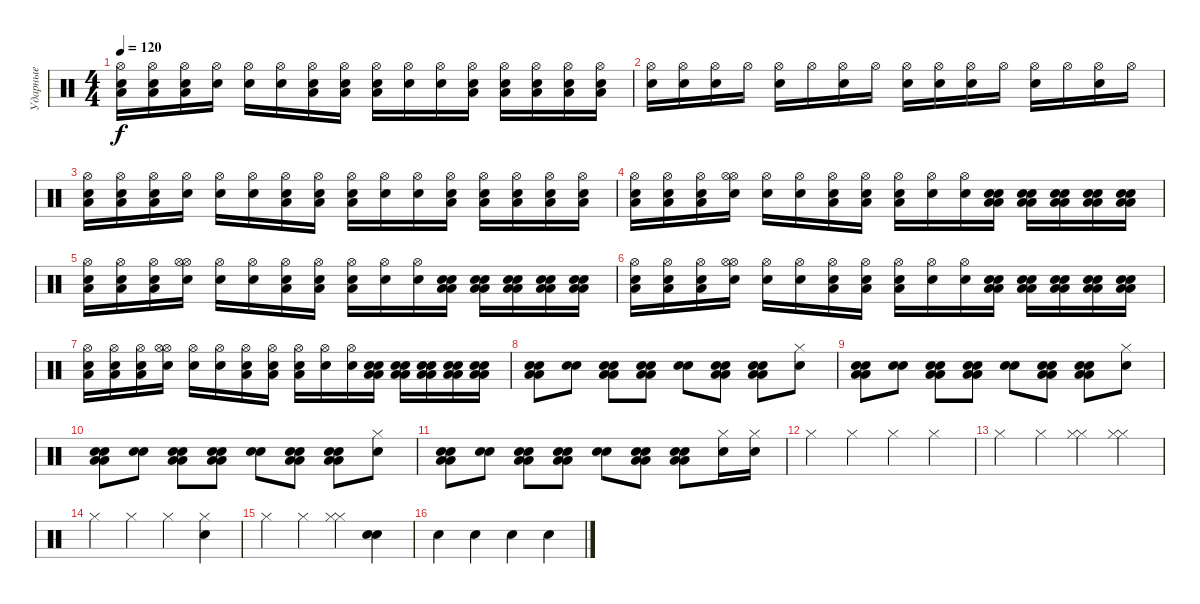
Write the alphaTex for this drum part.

\track ("Ударные" "Ударные") {instrument percussion}
\staff {score}
\articulation defaults
\ts (4 4)
\tempo 120
\clef neutral
\ks c
("Low Floor Tom (hit)" "Electric Snare (hit)" "Hi-Hat (open)").16{dy f} ("Low Floor Tom (hit)" "Electric Snare (hit)" "Hi-Hat (open)").16 ("Low Floor Tom (hit)" "Electric Snare (hit)" "Hi-Hat (open)").16 ("Electric Snare (hit)" "Hi-Hat (open)").16 ("Electric Snare (hit)" "Hi-Hat (open)").16 ("Electric Snare (hit)" "Hi-Hat (open)").16 ("Low Floor Tom (hit)" "Electric Snare (hit)" "Hi-Hat (open)").16 ("Low Floor Tom (hit)" "Electric Snare (hit)" "Hi-Hat (open)").16 ("Low Floor Tom (hit)" "Electric Snare (hit)" "Hi-Hat (open)").16 ("Electric Snare (hit)" "Hi-Hat (open)").16 ("Electric Snare (hit)" "Hi-Hat (open)").16 ("Low Floor Tom (hit)" "Electric Snare (hit)" "Hi-Hat (open)").16 ("Low Floor Tom (hit)" "Electric Snare (hit)" "Hi-Hat (open)").16 ("Low Floor Tom (hit)" "Electric Snare (hit)" "Hi-Hat (open)").16 ("Low Floor Tom (hit)" "Electric Snare (hit)" "Hi-Hat (open)").16 ("Low Floor Tom (hit)" "Electric Snare (hit)" "Hi-Hat (open)").16 |
("Electric Snare (hit)" "Hi-Hat (open)").16 ("Electric Snare (hit)" "Hi-Hat (open)").16 ("Electric Snare (hit)" "Hi-Hat (open)").16 "Hi-Hat (open)".16 ("Electric Snare (hit)" "Hi-Hat (open)").16 "Hi-Hat (open)".16 ("Electric Snare (hit)" "Hi-Hat (open)").16 "Hi-Hat (open)".16 ("Electric Snare (hit)" "Hi-Hat (open)").16 ("Electric Snare (hit)" "Hi-Hat (open)").16 ("Electric Snare (hit)" "Hi-Hat (open)").16 "Hi-Hat (open)".16 ("Electric Snare (hit)" "Hi-Hat (open)").16 "Hi-Hat (open)".16 ("Electric Snare (hit)" "Hi-Hat (open)").16 "Hi-Hat (open)".16 |
("Low Floor Tom (hit)" "Electric Snare (hit)" "Hi-Hat (open)").16 ("Low Floor Tom (hit)" "Electric Snare (hit)" "Hi-Hat (open)").16 ("Low Floor Tom (hit)" "Electric Snare (hit)" "Hi-Hat (open)").16 ("Electric Snare (hit)" "Hi-Hat (open)").16 ("Electric Snare (hit)" "Hi-Hat (open)").16 ("Electric Snare (hit)" "Hi-Hat (open)").16 ("Low Floor Tom (hit)" "Electric Snare (hit)" "Hi-Hat (open)").16 ("Low Floor Tom (hit)" "Electric Snare (hit)" "Hi-Hat (open)").16 ("Low Floor Tom (hit)" "Electric Snare (hit)" "Hi-Hat (open)").16 ("Electric Snare (hit)" "Hi-Hat (open)").16 ("Electric Snare (hit)" "Hi-Hat (open)").16 ("Low Floor Tom (hit)" "Electric Snare (hit)" "Hi-Hat (open)").16 ("Low Floor Tom (hit)" "Electric Snare (hit)" "Hi-Hat (open)").16 ("Low Floor Tom (hit)" "Electric Snare (hit)" "Hi-Hat (open)").16 ("Low Floor Tom (hit)" "Electric Snare (hit)" "Hi-Hat (open)").16 ("Low Floor Tom (hit)" "Electric Snare (hit)" "Hi-Hat (open)").16 |
("Low Floor Tom (hit)" "Electric Snare (hit)" "Hi-Hat (open)").16 ("Low Floor Tom (hit)" "Electric Snare (hit)" "Hi-Hat (open)").16 ("Low Floor Tom (hit)" "Electric Snare (hit)" "Hi-Hat (open)").16 ("Hi-Hat (open)" "Electric Snare (hit)" "Hi-Hat (open)").16 ("Electric Snare (hit)" "Hi-Hat (open)").16 ("Electric Snare (hit)" "Hi-Hat (open)").16 ("Low Floor Tom (hit)" "Electric Snare (hit)" "Hi-Hat (open)").16 ("Low Floor Tom (hit)" "Electric Snare (hit)" "Hi-Hat (open)").16 ("Low Floor Tom (hit)" "Electric Snare (hit)" "Hi-Hat (open)").16 ("Electric Snare (hit)" "Hi-Hat (open)").16 ("Electric Snare (hit)" "Hi-Hat (open)").16 ("Low Floor Tom (hit)" "Low Floor Tom (hit)" "Electric Snare (hit)" "Electric Snare (hit)").16 ("Low Floor Tom (hit)" "Low Floor Tom (hit)" "Electric Snare (hit)" "Electric Snare (hit)").16 ("Low Floor Tom (hit)" "Low Floor Tom (hit)" "Electric Snare (hit)" "Electric Snare (hit)").16 ("Low Floor Tom (hit)" "Low Floor Tom (hit)" "Electric Snare (hit)" "Electric Snare (hit)").16 ("Low Floor Tom (hit)" "Low Floor Tom (hit)" "Electric Snare (hit)" "Electric Snare (hit)").16 |
("Low Floor Tom (hit)" "Electric Snare (hit)" "Hi-Hat (open)").16 ("Low Floor Tom (hit)" "Electric Snare (hit)" "Hi-Hat (open)").16 ("Low Floor Tom (hit)" "Electric Snare (hit)" "Hi-Hat (open)").16 ("Hi-Hat (open)" "Electric Snare (hit)" "Hi-Hat (open)").16 ("Electric Snare (hit)" "Hi-Hat (open)").16 ("Electric Snare (hit)" "Hi-Hat (open)").16 ("Low Floor Tom (hit)" "Electric Snare (hit)" "Hi-Hat (open)").16 ("Low Floor Tom (hit)" "Electric Snare (hit)" "Hi-Hat (open)").16 ("Low Floor Tom (hit)" "Electric Snare (hit)" "Hi-Hat (open)").16 ("Electric Snare (hit)" "Hi-Hat (open)").16 ("Electric Snare (hit)" "Hi-Hat (open)").16 ("Low Floor Tom (hit)" "Low Floor Tom (hit)" "Electric Snare (hit)" "Electric Snare (hit)").16 ("Low Floor Tom (hit)" "Low Floor Tom (hit)" "Electric Snare (hit)" "Electric Snare (hit)").16 ("Low Floor Tom (hit)" "Low Floor Tom (hit)" "Electric Snare (hit)" "Electric Snare (hit)").16 ("Low Floor Tom (hit)" "Low Floor Tom (hit)" "Electric Snare (hit)" "Electric Snare (hit)").16 ("Low Floor Tom (hit)" "Low Floor Tom (hit)" "Electric Snare (hit)" "Electric Snare (hit)").16 |
("Low Floor Tom (hit)" "Electric Snare (hit)" "Hi-Hat (open)").16 ("Low Floor Tom (hit)" "Electric Snare (hit)" "Hi-Hat (open)").16 ("Low Floor Tom (hit)" "Electric Snare (hit)" "Hi-Hat (open)").16 ("Hi-Hat (open)" "Electric Snare (hit)" "Hi-Hat (open)").16 ("Electric Snare (hit)" "Hi-Hat (open)").16 ("Electric Snare (hit)" "Hi-Hat (open)").16 ("Low Floor Tom (hit)" "Electric Snare (hit)" "Hi-Hat (open)").16 ("Low Floor Tom (hit)" "Electric Snare (hit)" "Hi-Hat (open)").16 ("Low Floor Tom (hit)" "Electric Snare (hit)" "Hi-Hat (open)").16 ("Electric Snare (hit)" "Hi-Hat (open)").16 ("Electric Snare (hit)" "Hi-Hat (open)").16 ("Low Floor Tom (hit)" "Low Floor Tom (hit)" "Electric Snare (hit)" "Electric Snare (hit)").16 ("Low Floor Tom (hit)" "Low Floor Tom (hit)" "Electric Snare (hit)" "Electric Snare (hit)").16 ("Low Floor Tom (hit)" "Low Floor Tom (hit)" "Electric Snare (hit)" "Electric Snare (hit)").16 ("Low Floor Tom (hit)" "Low Floor Tom (hit)" "Electric Snare (hit)" "Electric Snare (hit)").16 ("Low Floor Tom (hit)" "Low Floor Tom (hit)" "Electric Snare (hit)" "Electric Snare (hit)").16 |
("Low Floor Tom (hit)" "Electric Snare (hit)" "Hi-Hat (open)").16 ("Low Floor Tom (hit)" "Electric Snare (hit)" "Hi-Hat (open)").16 ("Low Floor Tom (hit)" "Electric Snare (hit)" "Hi-Hat (open)").16 ("Hi-Hat (open)" "Electric Snare (hit)" "Hi-Hat (open)").16 ("Electric Snare (hit)" "Hi-Hat (open)").16 ("Electric Snare (hit)" "Hi-Hat (open)").16 ("Low Floor Tom (hit)" "Electric Snare (hit)" "Hi-Hat (open)").16 ("Low Floor Tom (hit)" "Electric Snare (hit)" "Hi-Hat (open)").16 ("Low Floor Tom (hit)" "Electric Snare (hit)" "Hi-Hat (open)").16 ("Electric Snare (hit)" "Hi-Hat (open)").16 ("Electric Snare (hit)" "Hi-Hat (open)").16 ("Low Floor Tom (hit)" "Low Floor Tom (hit)" "Electric Snare (hit)" "Electric Snare (hit)").16 ("Low Floor Tom (hit)" "Low Floor Tom (hit)" "Electric Snare (hit)" "Electric Snare (hit)").16 ("Low Floor Tom (hit)" "Low Floor Tom (hit)" "Electric Snare (hit)" "Electric Snare (hit)").16 ("Low Floor Tom (hit)" "Low Floor Tom (hit)" "Electric Snare (hit)" "Electric Snare (hit)").16 ("Low Floor Tom (hit)" "Low Floor Tom (hit)" "Electric Snare (hit)" "Electric Snare (hit)").16 |
("Electric Snare (hit)" "Electric Snare (hit)" "Low Floor Tom (hit)" "Low Floor Tom (hit)").8 ("Electric Snare (hit)" "Electric Snare (hit)").8 ("Electric Snare (hit)" "Electric Snare (hit)" "Low Floor Tom (hit)" "Low Floor Tom (hit)").8 ("Electric Snare (hit)" "Electric Snare (hit)" "Low Floor Tom (hit)" "Low Floor Tom (hit)").8 ("Electric Snare (hit)" "Electric Snare (hit)").8 ("Electric Snare (hit)" "Electric Snare (hit)" "Low Floor Tom (hit)" "Low Floor Tom (hit)").8 ("Electric Snare (hit)" "Electric Snare (hit)" "Low Floor Tom (hit)" "Low Floor Tom (hit)").8 ("Electric Snare (hit)" "Hi-Hat (closed)").8 |
("Electric Snare (hit)" "Electric Snare (hit)" "Low Floor Tom (hit)" "Low Floor Tom (hit)").8 ("Electric Snare (hit)" "Electric Snare (hit)").8 ("Electric Snare (hit)" "Electric Snare (hit)" "Low Floor Tom (hit)" "Low Floor Tom (hit)").8 ("Electric Snare (hit)" "Electric Snare (hit)" "Low Floor Tom (hit)" "Low Floor Tom (hit)").8 ("Electric Snare (hit)" "Electric Snare (hit)").8 ("Electric Snare (hit)" "Electric Snare (hit)" "Low Floor Tom (hit)" "Low Floor Tom (hit)").8 ("Electric Snare (hit)" "Electric Snare (hit)" "Low Floor Tom (hit)" "Low Floor Tom (hit)").8 ("Electric Snare (hit)" "Hi-Hat (closed)").8 |
("Electric Snare (hit)" "Electric Snare (hit)" "Low Floor Tom (hit)" "Low Floor Tom (hit)").8 ("Electric Snare (hit)" "Electric Snare (hit)").8 ("Electric Snare (hit)" "Electric Snare (hit)" "Low Floor Tom (hit)" "Low Floor Tom (hit)").8 ("Electric Snare (hit)" "Electric Snare (hit)" "Low Floor Tom (hit)" "Low Floor Tom (hit)").8 ("Electric Snare (hit)" "Electric Snare (hit)").8 ("Electric Snare (hit)" "Electric Snare (hit)" "Low Floor Tom (hit)" "Low Floor Tom (hit)").8 ("Electric Snare (hit)" "Electric Snare (hit)" "Low Floor Tom (hit)" "Low Floor Tom (hit)").8 ("Electric Snare (hit)" "Hi-Hat (closed)").8 |
("Electric Snare (hit)" "Electric Snare (hit)" "Low Floor Tom (hit)" "Low Floor Tom (hit)").8 ("Electric Snare (hit)" "Electric Snare (hit)").8 ("Electric Snare (hit)" "Electric Snare (hit)" "Low Floor Tom (hit)" "Low Floor Tom (hit)").8 ("Electric Snare (hit)" "Electric Snare (hit)" "Low Floor Tom (hit)" "Low Floor Tom (hit)").8 ("Electric Snare (hit)" "Electric Snare (hit)").8 ("Electric Snare (hit)" "Electric Snare (hit)" "Low Floor Tom (hit)" "Low Floor Tom (hit)").8 ("Electric Snare (hit)" "Electric Snare (hit)" "Low Floor Tom (hit)" "Low Floor Tom (hit)").8 ("Electric Snare (hit)" "Hi-Hat (closed)").16 ("Electric Snare (hit)" "Hi-Hat (closed)").16 |
"Hi-Hat (closed)".4 "Hi-Hat (closed)".4 "Hi-Hat (closed)".4 "Hi-Hat (closed)".4 |
"Hi-Hat (closed)".4 "Hi-Hat (closed)".4 ("Hi-Hat (closed)" "Hi-Hat (closed)").4 ("Hi-Hat (closed)" "Hi-Hat (closed)").4 |
"Hi-Hat (closed)".4 "Hi-Hat (closed)".4 "Hi-Hat (closed)".4 ("Hi-Hat (closed)" "Electric Snare (hit)").4 |
"Hi-Hat (closed)".4 "Hi-Hat (closed)".4 ("Hi-Hat (closed)" "Hi-Hat (closed)").4 ("Electric Snare (hit)" "Electric Snare (hit)").4 |
"Electric Snare (hit)".4 "Electric Snare (hit)".4 "Electric Snare (hit)".4 "Electric Snare (hit)".4
